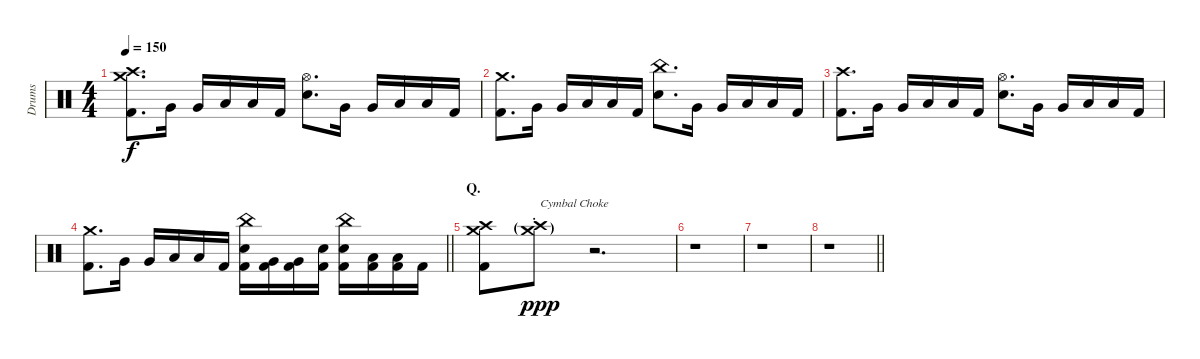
\track ("Drums" "Drums") {instrument percussion}
\staff {score}
\articulation defaults
\ts (4 4)
\tempo 150
\clef neutral
\ks c
("Crash medium (hit)" "Crash high (hit)" "Kick (hit) 2").8{d dy f} "Very Low Tom (hit)".16 "Very Low Tom (hit)".16 "Low Floor Tom (hit)".16 "Low Floor Tom (hit)".16 "Kick (hit) 2".16 ("Hi-Hat (open)" "Electric Snare (hit)").8{d} "Very Low Tom (hit)".16 "Very Low Tom (hit)".16 "Low Floor Tom (hit)".16 "Low Floor Tom (hit)".16 "Kick (hit) 2".16 |
("Crash medium (hit)" "Kick (hit) 2").8{d} "Very Low Tom (hit)".16 "Very Low Tom (hit)".16 "Low Floor Tom (hit)".16 "Low Floor Tom (hit)".16 "Kick (hit) 2".16 ("China (hit)" "Electric Snare (hit)").8{d} "Very Low Tom (hit)".16 "Very Low Tom (hit)".16 "Low Floor Tom (hit)".16 "Low Floor Tom (hit)".16 "Kick (hit) 2".16 |
("Crash high (hit)" "Kick (hit) 2").8{d} "Very Low Tom (hit)".16 "Very Low Tom (hit)".16 "Low Floor Tom (hit)".16 "Low Floor Tom (hit)".16 "Kick (hit) 2".16 ("Hi-Hat (open)" "Electric Snare (hit)").8{d} "Very Low Tom (hit)".16 "Very Low Tom (hit)".16 "Low Floor Tom (hit)".16 "Low Floor Tom (hit)".16 "Kick (hit) 2".16 |
\barLineRight lightlight
("Crash medium (hit)" "Kick (hit) 2").8{d} "Very Low Tom (hit)".16 "Very Low Tom (hit)".16 "Low Floor Tom (hit)".16 "Low Floor Tom (hit)".16 "Kick (hit) 2".16 ("China (hit)" "Electric Snare (hit)" "Kick (hit) 2").16 ("Very Low Tom (hit)" "Kick (hit) 2").16 ("Very Low Tom (hit)" "Kick (hit) 2").16 ("Electric Snare (hit)" "Kick (hit) 2").16 ("China (hit)" "Electric Snare (hit)" "Kick (hit) 2").16 ("Low Floor Tom (hit)" "Kick (hit) 2").16 ("Low Floor Tom (hit)" "Kick (hit) 2").16 "Kick (hit) 2".16 |
\section ("" "Q.")
("Crash medium (hit)" "Crash high (hit)" "Kick (hit) 2").8 ("Crash medium (hit)"{g st} "Crash high (hit)"{g st}).8{txt "Cymbal Choke" dy ppp} r.2{d} |
r.1 |
r.1 |
\barLineRight lightlight
r.1
